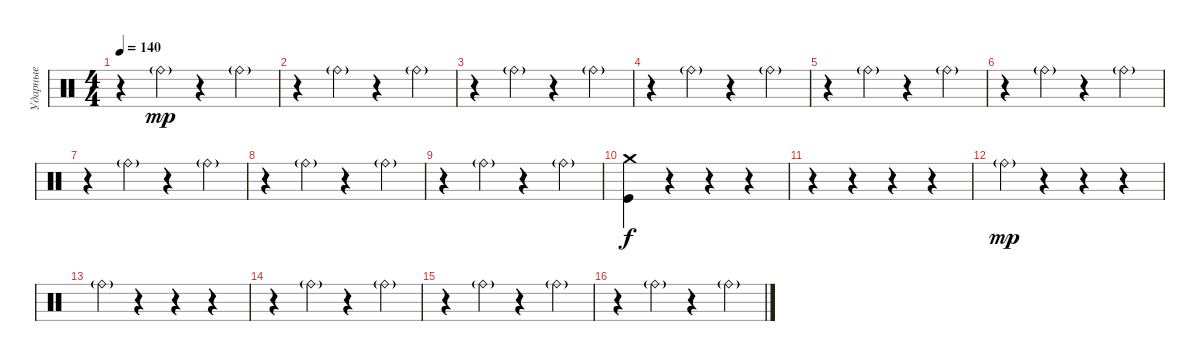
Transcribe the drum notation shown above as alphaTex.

\track ("Ударные" "Ударные") {instrument percussion}
\staff {score}
\articulation defaults
\ts (4 4)
\tempo 140
\clef neutral
\ks c
r.4{dy mp} "Ride (bell)"{g}.4 r.4 "Ride (bell)"{g}.4 |
r.4 "Ride (bell)"{g}.4 r.4 "Ride (bell)"{g}.4 |
r.4 "Ride (bell)"{g}.4 r.4 "Ride (bell)"{g}.4 |
r.4 "Ride (bell)"{g}.4 r.4 "Ride (bell)"{g}.4 |
r.4 "Ride (bell)"{g}.4 r.4 "Ride (bell)"{g}.4 |
r.4 "Ride (bell)"{g}.4 r.4 "Ride (bell)"{g}.4 |
r.4 "Ride (bell)"{g}.4 r.4 "Ride (bell)"{g}.4 |
r.4 "Ride (bell)"{g}.4 r.4 "Ride (bell)"{g}.4 |
r.4 "Ride (bell)"{g}.4 r.4 "Ride (bell)"{g}.4 |
("Crash medium (hit)" "Kick (hit)").4{dy f} r.4 r.4 r.4 |
r.4 r.4 r.4 r.4 |
"Ride (bell)"{g}.4{dy mp} r.4 r.4 r.4 |
"Ride (bell)"{g}.4 r.4 r.4 r.4 |
r.4 "Ride (bell)"{g}.4 r.4 "Ride (bell)"{g}.4 |
r.4 "Ride (bell)"{g}.4 r.4 "Ride (bell)"{g}.4 |
r.4 "Ride (bell)"{g}.4 r.4 "Ride (bell)"{g}.4
